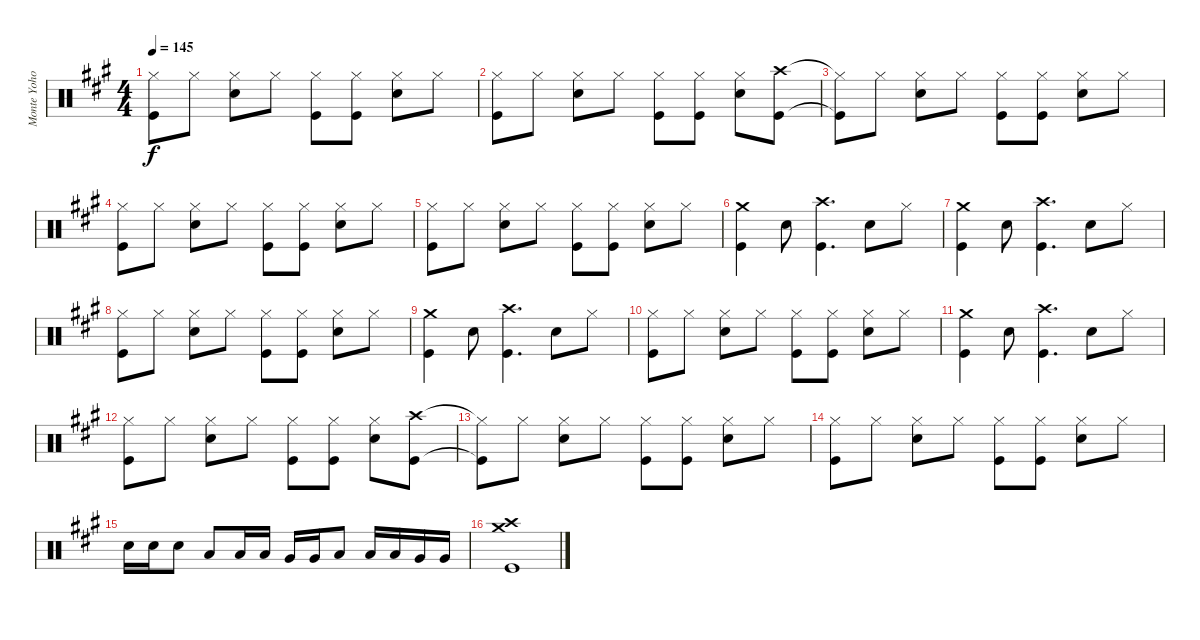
\track ("Monte Yoho Drums" "Monte Yoho") {instrument percussion}
\staff {score}
\articulation defaults
\ts (4 4)
\tempo 145
\clef neutral
\ks a
("Hi-Hat (closed)" "Kick (hit)").8{dy f} "Hi-Hat (closed)".8 ("Hi-Hat (closed)" "Snare (hit) 2").8 "Hi-Hat (closed)".8 ("Hi-Hat (closed)" "Kick (hit)").8 ("Hi-Hat (closed)" "Kick (hit)").8 ("Hi-Hat (closed)" "Snare (hit) 2").8 "Hi-Hat (closed)".8 |
("Hi-Hat (closed)" "Kick (hit)").8 "Hi-Hat (closed)".8 ("Hi-Hat (closed)" "Snare (hit) 2").8 "Hi-Hat (closed)".8 ("Hi-Hat (closed)" "Kick (hit)").8 ("Hi-Hat (closed)" "Kick (hit)").8 ("Hi-Hat (closed)" "Snare (hit) 2").8 ("Crash high (hit)" "Kick (hit)").8 |
("Hi-Hat (closed)"{t} "Kick (hit)"{t}).8 "Hi-Hat (closed)".8 ("Hi-Hat (closed)" "Snare (hit) 2").8 "Hi-Hat (closed)".8 ("Hi-Hat (closed)" "Kick (hit)").8 ("Hi-Hat (closed)" "Kick (hit)").8 ("Hi-Hat (closed)" "Snare (hit) 2").8 "Hi-Hat (closed)".8 |
("Hi-Hat (closed)" "Kick (hit)").8 "Hi-Hat (closed)".8 ("Hi-Hat (closed)" "Snare (hit) 2").8 "Hi-Hat (closed)".8 ("Hi-Hat (closed)" "Kick (hit)").8 ("Hi-Hat (closed)" "Kick (hit)").8 ("Hi-Hat (closed)" "Snare (hit) 2").8 "Hi-Hat (closed)".8 |
("Hi-Hat (closed)" "Kick (hit)").8 "Hi-Hat (closed)".8 ("Hi-Hat (closed)" "Snare (hit) 2").8 "Hi-Hat (closed)".8 ("Hi-Hat (closed)" "Kick (hit)").8 ("Hi-Hat (closed)" "Kick (hit)").8 ("Hi-Hat (closed)" "Snare (hit) 2").8 "Hi-Hat (closed)".8 |
("Crash medium (hit)" "Kick (hit)").4 "Snare (hit) 2".8 ("Crash high (hit)" "Kick (hit)").4{d} "Snare (hit) 2".8 "Hi-Hat (closed)".8 |
("Crash medium (hit)" "Kick (hit)").4 "Snare (hit) 2".8 ("Crash high (hit)" "Kick (hit)").4{d} "Snare (hit) 2".8 "Hi-Hat (closed)".8 |
("Hi-Hat (closed)" "Kick (hit)").8 "Hi-Hat (closed)".8 ("Hi-Hat (closed)" "Snare (hit) 2").8 "Hi-Hat (closed)".8 ("Hi-Hat (closed)" "Kick (hit)").8 ("Hi-Hat (closed)" "Kick (hit)").8 ("Hi-Hat (closed)" "Snare (hit) 2").8 "Hi-Hat (closed)".8 |
("Crash medium (hit)" "Kick (hit)").4 "Snare (hit) 2".8 ("Crash high (hit)" "Kick (hit)").4{d} "Snare (hit) 2".8 "Hi-Hat (closed)".8 |
("Hi-Hat (closed)" "Kick (hit)").8 "Hi-Hat (closed)".8 ("Hi-Hat (closed)" "Snare (hit) 2").8 "Hi-Hat (closed)".8 ("Hi-Hat (closed)" "Kick (hit)").8 ("Hi-Hat (closed)" "Kick (hit)").8 ("Hi-Hat (closed)" "Snare (hit) 2").8 "Hi-Hat (closed)".8 |
("Crash medium (hit)" "Kick (hit)").4 "Snare (hit) 2".8 ("Crash high (hit)" "Kick (hit)").4{d} "Snare (hit) 2".8 "Hi-Hat (closed)".8 |
("Hi-Hat (closed)" "Kick (hit)").8 "Hi-Hat (closed)".8 ("Hi-Hat (closed)" "Snare (hit) 2").8 "Hi-Hat (closed)".8 ("Hi-Hat (closed)" "Kick (hit)").8 ("Hi-Hat (closed)" "Kick (hit)").8 ("Hi-Hat (closed)" "Snare (hit) 2").8 ("Crash high (hit)" "Kick (hit)").8 |
("Hi-Hat (closed)"{t} "Kick (hit)"{t}).8 "Hi-Hat (closed)".8 ("Hi-Hat (closed)" "Snare (hit) 2").8 "Hi-Hat (closed)".8 ("Hi-Hat (closed)" "Kick (hit)").8 ("Hi-Hat (closed)" "Kick (hit)").8 ("Hi-Hat (closed)" "Snare (hit) 2").8 "Hi-Hat (closed)".8 |
("Hi-Hat (closed)" "Kick (hit)").8 "Hi-Hat (closed)".8 ("Hi-Hat (closed)" "Snare (hit) 2").8 "Hi-Hat (closed)".8 ("Hi-Hat (closed)" "Kick (hit)").8 ("Hi-Hat (closed)" "Kick (hit)").8 ("Hi-Hat (closed)" "Snare (hit) 2").8 "Hi-Hat (closed)".8 |
"Snare (hit) 2".16 "Snare (hit) 2".16 "Snare (hit) 2".8 "Low Tom (hit)".8 "Low Tom (hit)".16 "Low Tom (hit)".16 "Very Low Tom (hit)".16 "Very Low Tom (hit)".16 "Low Floor Tom (hit)".8 "Low Tom (hit)".16 "Low Tom (hit)".16 "Very Low Tom (hit)".16 "Very Low Tom (hit)".16 |
("Crash high (hit)" "Crash medium (hit)" "Kick (hit)").1
